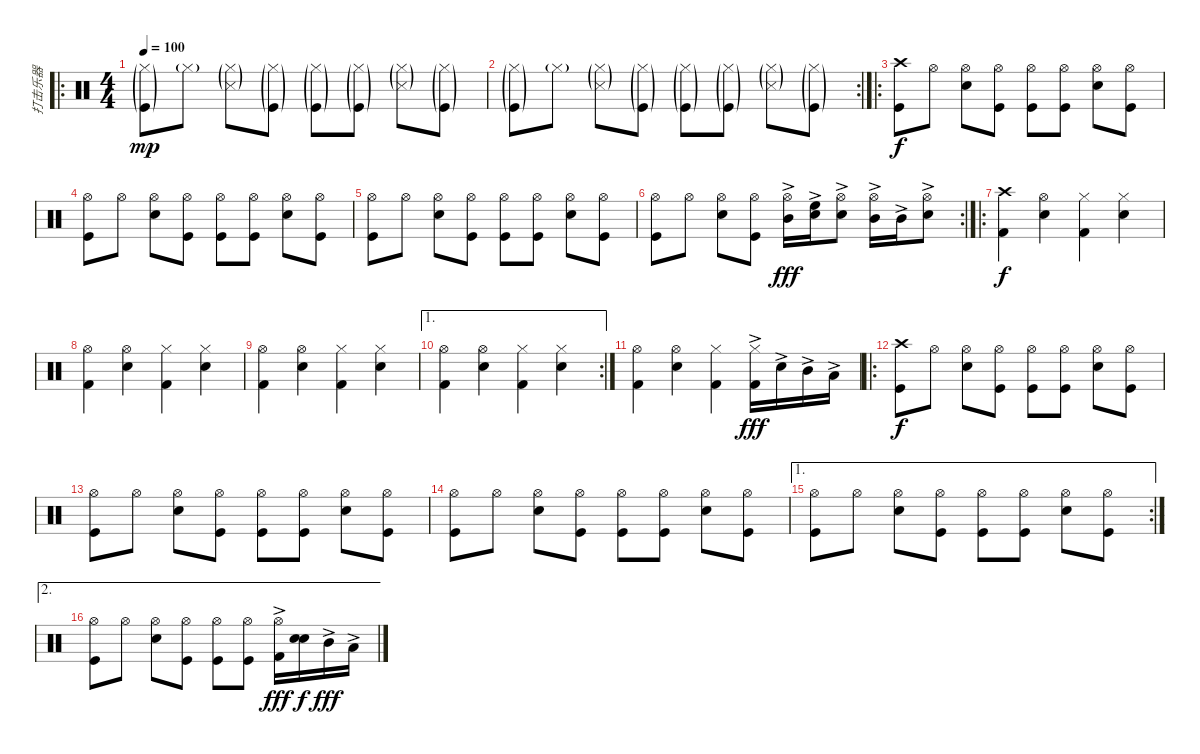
\track ("打击乐器" "打击乐器") {instrument percussion}
\staff {score}
\articulation defaults
\ro
\ts (4 4)
\tempo 100
\clef neutral
\ks c
("Hi-Hat (closed)"{g} "Kick (hit)"{g}).8{dy mp} "Hi-Hat (closed)"{g}.8 ("Hi-Hat (closed)"{g} "Snare (side stick) 3"{g}).8 ("Hi-Hat (closed)"{g} "Kick (hit)"{g}).8 ("Hi-Hat (closed)"{g} "Kick (hit)"{g}).8 ("Hi-Hat (closed)"{g} "Kick (hit)"{g}).8 ("Hi-Hat (closed)"{g} "Snare (side stick) 3"{g}).8 ("Hi-Hat (closed)"{g} "Kick (hit)"{g}).8 |
\rc 2
("Hi-Hat (closed)"{g} "Kick (hit)"{g}).8 "Hi-Hat (closed)"{g}.8 ("Hi-Hat (closed)"{g} "Snare (side stick) 3"{g}).8 ("Hi-Hat (closed)"{g} "Kick (hit)"{g}).8 ("Hi-Hat (closed)"{g} "Kick (hit)"{g}).8 ("Hi-Hat (closed)"{g} "Kick (hit)"{g}).8 ("Hi-Hat (closed)"{g} "Snare (side stick) 3"{g}).8 ("Hi-Hat (closed)"{g} "Kick (hit)"{g}).8 |
\ro
("Crash high (hit)" "Kick (hit)").8{dy f} "Hi-Hat (open)".8 ("Hi-Hat (open)" "Snare (hit) 2").8 ("Hi-Hat (open)" "Kick (hit)").8 ("Hi-Hat (open)" "Kick (hit)").8 ("Hi-Hat (open)" "Kick (hit)").8 ("Hi-Hat (open)" "Snare (hit) 2").8 ("Hi-Hat (open)" "Kick (hit)").8 |
("Hi-Hat (open)" "Kick (hit)").8 "Hi-Hat (open)".8 ("Hi-Hat (open)" "Snare (hit) 2").8 ("Hi-Hat (open)" "Kick (hit)").8 ("Hi-Hat (open)" "Kick (hit)").8 ("Hi-Hat (open)" "Kick (hit)").8 ("Hi-Hat (open)" "Snare (hit) 2").8 ("Hi-Hat (open)" "Kick (hit)").8 |
("Hi-Hat (open)" "Kick (hit)").8 "Hi-Hat (open)".8 ("Hi-Hat (open)" "Snare (hit) 2").8 ("Hi-Hat (open)" "Kick (hit)").8 ("Hi-Hat (open)" "Kick (hit)").8 ("Hi-Hat (open)" "Kick (hit)").8 ("Hi-Hat (open)" "Snare (hit) 2").8 ("Hi-Hat (open)" "Kick (hit)").8 |
\rc 2
("Hi-Hat (open)" "Kick (hit)").8 "Hi-Hat (open)".8 ("Hi-Hat (open)" "Snare (hit) 2").8 ("Hi-Hat (open)" "Kick (hit)").8 ("Hi-Hat (open)" "Mid Tom (hit)"{ac}).16{dy fff} ("Snare (hit) 2" "High Floor Tom (hit)"{ac}).16 ("Hi-Hat (open)" "Snare (hit) 2"{ac}).8 ("Hi-Hat (open)" "Mid Tom (hit)"{ac}).16 "Mid Tom (hit)"{ac}.16 ("Hi-Hat (open)" "Snare (hit) 2"{ac}).8 |
\ro
("Crash high (hit)" "Kick (hit) 2").4{dy f} ("Snare (hit) 2" "Hi-Hat (open)").4 ("Hi-Hat (closed)" "Kick (hit) 2").4 ("Hi-Hat (closed)" "Snare (hit) 2").4 |
("Hi-Hat (open)" "Kick (hit) 2").4 ("Snare (hit) 2" "Hi-Hat (open)").4 ("Hi-Hat (closed)" "Kick (hit) 2").4 ("Hi-Hat (closed)" "Snare (hit) 2").4 |
("Hi-Hat (open)" "Kick (hit) 2").4 ("Snare (hit) 2" "Hi-Hat (open)").4 ("Hi-Hat (closed)" "Kick (hit) 2").4 ("Hi-Hat (closed)" "Snare (hit) 2").4 |
\ae 1
\rc 2
("Hi-Hat (open)" "Kick (hit) 2").4 ("Snare (hit) 2" "Hi-Hat (open)").4 ("Hi-Hat (closed)" "Kick (hit) 2").4 ("Hi-Hat (closed)" "Snare (hit) 2").4 |
("Hi-Hat (open)" "Kick (hit) 2").4 ("Snare (hit) 2" "Hi-Hat (open)").4 ("Hi-Hat (closed)" "Kick (hit) 2").4 ("Hi-Hat (closed)" "Kick (hit) 2"{ac}).16{dy fff} "Snare (hit) 2"{ac}.16 "Mid Tom (hit)"{ac}.16 "Low Tom (hit)"{ac}.16 |
\ro
("Crash high (hit)" "Kick (hit)").8{dy f} "Hi-Hat (open)".8 ("Hi-Hat (open)" "Snare (hit) 2").8 ("Hi-Hat (open)" "Kick (hit)").8 ("Hi-Hat (open)" "Kick (hit)").8 ("Hi-Hat (open)" "Kick (hit)").8 ("Hi-Hat (open)" "Snare (hit) 2").8 ("Hi-Hat (open)" "Kick (hit)").8 |
("Hi-Hat (open)" "Kick (hit)").8 "Hi-Hat (open)".8 ("Hi-Hat (open)" "Snare (hit) 2").8 ("Hi-Hat (open)" "Kick (hit)").8 ("Hi-Hat (open)" "Kick (hit)").8 ("Hi-Hat (open)" "Kick (hit)").8 ("Hi-Hat (open)" "Snare (hit) 2").8 ("Hi-Hat (open)" "Kick (hit)").8 |
("Hi-Hat (open)" "Kick (hit)").8 "Hi-Hat (open)".8 ("Hi-Hat (open)" "Snare (hit) 2").8 ("Hi-Hat (open)" "Kick (hit)").8 ("Hi-Hat (open)" "Kick (hit)").8 ("Hi-Hat (open)" "Kick (hit)").8 ("Hi-Hat (open)" "Snare (hit) 2").8 ("Hi-Hat (open)" "Kick (hit)").8 |
\ae 1
\rc 2
("Hi-Hat (open)" "Kick (hit)").8 "Hi-Hat (open)".8 ("Hi-Hat (open)" "Snare (hit) 2").8 ("Hi-Hat (open)" "Kick (hit)").8 ("Hi-Hat (open)" "Kick (hit)").8 ("Hi-Hat (open)" "Kick (hit)").8 ("Hi-Hat (open)" "Snare (hit) 2").8 ("Hi-Hat (open)" "Kick (hit)").8 |
\ae 2
("Hi-Hat (open)" "Kick (hit)").8 "Hi-Hat (open)".8 ("Hi-Hat (open)" "Snare (hit) 2").8 ("Hi-Hat (open)" "Kick (hit)").8 ("Hi-Hat (open)" "Kick (hit)").8 ("Hi-Hat (open)" "Kick (hit)").8 ("Hi-Hat (open)" "Kick (hit) 2"{ac}).16{dy fff} ("Snare (hit) 2" "Snare (hit) 2").16{dy f} "Mid Tom (hit)"{ac}.16{dy fff} "Low Tom (hit)"{ac}.16
